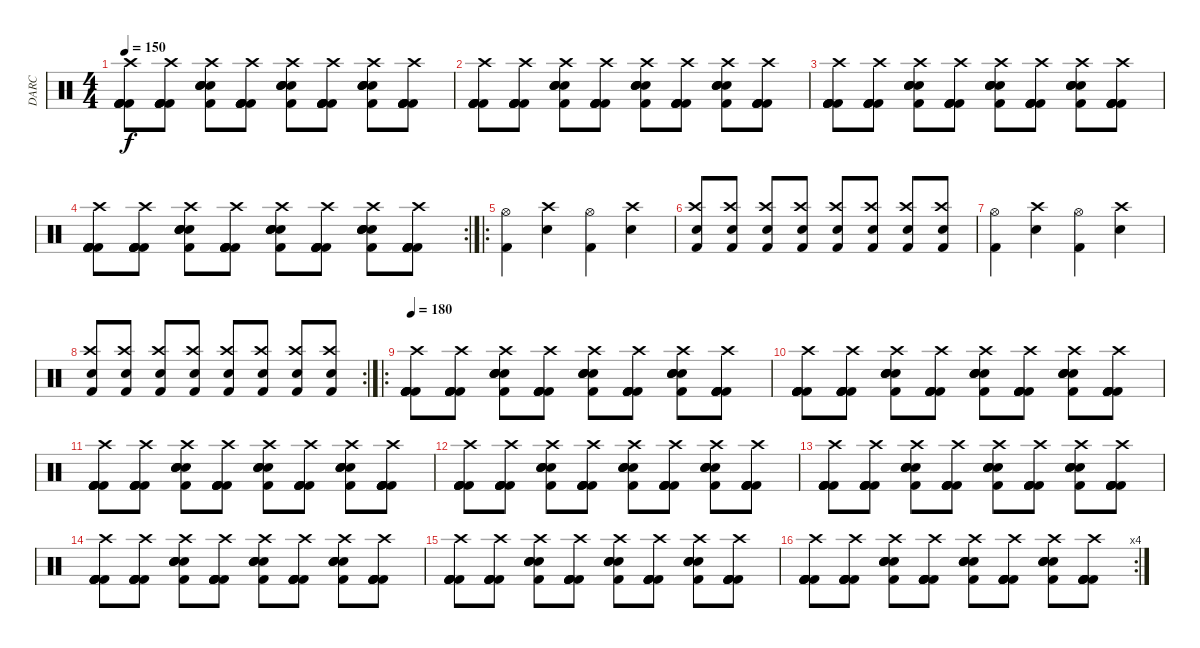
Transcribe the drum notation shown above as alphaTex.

\track ("DARC" "DARC") {instrument percussion}
\staff {score}
\articulation defaults
\ts (4 4)
\tempo 150
\clef neutral
\ks c
("Kick (hit) 2" "Kick (hit) 2" "Kick (hit) 2" "Kick (hit) 2" "Crash high (hit)" "Kick (hit) 2").8{dy f} ("Kick (hit) 2" "Kick (hit) 2" "Kick (hit) 2" "Kick (hit) 2" "Crash high (hit)" "Kick (hit) 2").8 ("Kick (hit) 2" "Electric Snare (hit)" "Electric Snare (hit)" "Electric Snare (hit)" "Crash high (hit)" "Electric Snare (hit)").8 ("Kick (hit) 2" "Kick (hit) 2" "Kick (hit) 2" "Kick (hit) 2" "Crash high (hit)" "Kick (hit) 2").8 ("Kick (hit) 2" "Electric Snare (hit)" "Electric Snare (hit)" "Electric Snare (hit)" "Crash high (hit)" "Electric Snare (hit)").8 ("Kick (hit) 2" "Kick (hit) 2" "Kick (hit) 2" "Kick (hit) 2" "Crash high (hit)" "Kick (hit) 2").8 ("Kick (hit) 2" "Electric Snare (hit)" "Electric Snare (hit)" "Electric Snare (hit)" "Crash high (hit)" "Electric Snare (hit)").8 ("Kick (hit) 2" "Kick (hit) 2" "Kick (hit) 2" "Kick (hit) 2" "Crash high (hit)" "Kick (hit) 2").8 |
("Kick (hit) 2" "Kick (hit) 2" "Kick (hit) 2" "Kick (hit) 2" "Crash high (hit)" "Kick (hit) 2").8 ("Kick (hit) 2" "Kick (hit) 2" "Kick (hit) 2" "Kick (hit) 2" "Crash high (hit)" "Kick (hit) 2").8 ("Kick (hit) 2" "Electric Snare (hit)" "Electric Snare (hit)" "Electric Snare (hit)" "Crash high (hit)" "Electric Snare (hit)").8 ("Kick (hit) 2" "Kick (hit) 2" "Kick (hit) 2" "Kick (hit) 2" "Crash high (hit)" "Kick (hit) 2").8 ("Kick (hit) 2" "Electric Snare (hit)" "Electric Snare (hit)" "Electric Snare (hit)" "Crash high (hit)" "Electric Snare (hit)").8 ("Kick (hit) 2" "Kick (hit) 2" "Kick (hit) 2" "Kick (hit) 2" "Crash high (hit)" "Kick (hit) 2").8 ("Kick (hit) 2" "Electric Snare (hit)" "Electric Snare (hit)" "Electric Snare (hit)" "Crash high (hit)" "Electric Snare (hit)").8 ("Kick (hit) 2" "Kick (hit) 2" "Kick (hit) 2" "Kick (hit) 2" "Crash high (hit)" "Kick (hit) 2").8 |
("Kick (hit) 2" "Kick (hit) 2" "Kick (hit) 2" "Kick (hit) 2" "Crash high (hit)" "Kick (hit) 2").8 ("Kick (hit) 2" "Kick (hit) 2" "Kick (hit) 2" "Kick (hit) 2" "Crash high (hit)" "Kick (hit) 2").8 ("Kick (hit) 2" "Electric Snare (hit)" "Electric Snare (hit)" "Electric Snare (hit)" "Crash high (hit)" "Electric Snare (hit)").8 ("Kick (hit) 2" "Kick (hit) 2" "Kick (hit) 2" "Kick (hit) 2" "Crash high (hit)" "Kick (hit) 2").8 ("Kick (hit) 2" "Electric Snare (hit)" "Electric Snare (hit)" "Electric Snare (hit)" "Crash high (hit)" "Electric Snare (hit)").8 ("Kick (hit) 2" "Kick (hit) 2" "Kick (hit) 2" "Kick (hit) 2" "Crash high (hit)" "Kick (hit) 2").8 ("Kick (hit) 2" "Electric Snare (hit)" "Electric Snare (hit)" "Electric Snare (hit)" "Crash high (hit)" "Electric Snare (hit)").8 ("Kick (hit) 2" "Kick (hit) 2" "Kick (hit) 2" "Kick (hit) 2" "Crash high (hit)" "Kick (hit) 2").8 |
\rc 2
("Kick (hit) 2" "Kick (hit) 2" "Kick (hit) 2" "Kick (hit) 2" "Crash high (hit)" "Kick (hit) 2").8 ("Kick (hit) 2" "Kick (hit) 2" "Kick (hit) 2" "Kick (hit) 2" "Crash high (hit)" "Kick (hit) 2").8 ("Kick (hit) 2" "Electric Snare (hit)" "Electric Snare (hit)" "Electric Snare (hit)" "Crash high (hit)" "Electric Snare (hit)").8 ("Kick (hit) 2" "Kick (hit) 2" "Kick (hit) 2" "Kick (hit) 2" "Crash high (hit)" "Kick (hit) 2").8 ("Kick (hit) 2" "Electric Snare (hit)" "Electric Snare (hit)" "Electric Snare (hit)" "Crash high (hit)" "Electric Snare (hit)").8 ("Kick (hit) 2" "Kick (hit) 2" "Kick (hit) 2" "Kick (hit) 2" "Crash high (hit)" "Kick (hit) 2").8 ("Kick (hit) 2" "Electric Snare (hit)" "Electric Snare (hit)" "Electric Snare (hit)" "Crash high (hit)" "Electric Snare (hit)").8 ("Kick (hit) 2" "Kick (hit) 2" "Kick (hit) 2" "Kick (hit) 2" "Crash high (hit)" "Kick (hit) 2").8 |
\ro
("Hi-Hat (open)" "Kick (hit) 2").4 ("Crash high (hit)" "Electric Snare (hit)").4 ("Hi-Hat (open)" "Kick (hit) 2").4 ("Crash high (hit)" "Electric Snare (hit)").4 |
("Crash high (hit)" "Kick (hit) 2" "Electric Snare (hit)").8 ("Crash high (hit)" "Kick (hit) 2" "Electric Snare (hit)").8 ("Crash high (hit)" "Kick (hit) 2" "Electric Snare (hit)").8 ("Crash high (hit)" "Kick (hit) 2" "Electric Snare (hit)").8 ("Crash high (hit)" "Kick (hit) 2" "Electric Snare (hit)").8 ("Crash high (hit)" "Kick (hit) 2" "Electric Snare (hit)").8 ("Crash high (hit)" "Kick (hit) 2" "Electric Snare (hit)").8 ("Crash high (hit)" "Kick (hit) 2" "Electric Snare (hit)").8 |
("Hi-Hat (open)" "Kick (hit) 2").4 ("Crash high (hit)" "Electric Snare (hit)").4 ("Hi-Hat (open)" "Kick (hit) 2").4 ("Crash high (hit)" "Electric Snare (hit)").4 |
\rc 2
("Crash high (hit)" "Kick (hit) 2" "Electric Snare (hit)").8 ("Crash high (hit)" "Kick (hit) 2" "Electric Snare (hit)").8 ("Crash high (hit)" "Kick (hit) 2" "Electric Snare (hit)").8 ("Crash high (hit)" "Kick (hit) 2" "Electric Snare (hit)").8 ("Crash high (hit)" "Kick (hit) 2" "Electric Snare (hit)").8 ("Crash high (hit)" "Kick (hit) 2" "Electric Snare (hit)").8 ("Crash high (hit)" "Kick (hit) 2" "Electric Snare (hit)").8 ("Crash high (hit)" "Kick (hit) 2" "Electric Snare (hit)").8 |
\ro
\tempo 180
("Kick (hit) 2" "Kick (hit) 2" "Kick (hit) 2" "Kick (hit) 2" "Crash high (hit)" "Kick (hit) 2").8{volume 16} ("Kick (hit) 2" "Kick (hit) 2" "Kick (hit) 2" "Kick (hit) 2" "Crash high (hit)" "Kick (hit) 2").8 ("Kick (hit) 2" "Electric Snare (hit)" "Electric Snare (hit)" "Electric Snare (hit)" "Crash high (hit)" "Electric Snare (hit)").8 ("Kick (hit) 2" "Kick (hit) 2" "Kick (hit) 2" "Kick (hit) 2" "Crash high (hit)" "Kick (hit) 2").8 ("Kick (hit) 2" "Electric Snare (hit)" "Electric Snare (hit)" "Electric Snare (hit)" "Crash high (hit)" "Electric Snare (hit)").8 ("Kick (hit) 2" "Kick (hit) 2" "Kick (hit) 2" "Kick (hit) 2" "Crash high (hit)" "Kick (hit) 2").8 ("Kick (hit) 2" "Electric Snare (hit)" "Electric Snare (hit)" "Electric Snare (hit)" "Crash high (hit)" "Electric Snare (hit)").8 ("Kick (hit) 2" "Kick (hit) 2" "Kick (hit) 2" "Kick (hit) 2" "Crash high (hit)" "Kick (hit) 2").8 |
("Kick (hit) 2" "Kick (hit) 2" "Kick (hit) 2" "Kick (hit) 2" "Crash high (hit)" "Kick (hit) 2").8 ("Kick (hit) 2" "Kick (hit) 2" "Kick (hit) 2" "Kick (hit) 2" "Crash high (hit)" "Kick (hit) 2").8 ("Kick (hit) 2" "Electric Snare (hit)" "Electric Snare (hit)" "Electric Snare (hit)" "Crash high (hit)" "Electric Snare (hit)").8 ("Kick (hit) 2" "Kick (hit) 2" "Kick (hit) 2" "Kick (hit) 2" "Crash high (hit)" "Kick (hit) 2").8 ("Kick (hit) 2" "Electric Snare (hit)" "Electric Snare (hit)" "Electric Snare (hit)" "Crash high (hit)" "Electric Snare (hit)").8 ("Kick (hit) 2" "Kick (hit) 2" "Kick (hit) 2" "Kick (hit) 2" "Crash high (hit)" "Kick (hit) 2").8 ("Kick (hit) 2" "Electric Snare (hit)" "Electric Snare (hit)" "Electric Snare (hit)" "Crash high (hit)" "Electric Snare (hit)").8 ("Kick (hit) 2" "Kick (hit) 2" "Kick (hit) 2" "Kick (hit) 2" "Crash high (hit)" "Kick (hit) 2").8 |
("Kick (hit) 2" "Kick (hit) 2" "Kick (hit) 2" "Kick (hit) 2" "Crash high (hit)" "Kick (hit) 2").8 ("Kick (hit) 2" "Kick (hit) 2" "Kick (hit) 2" "Kick (hit) 2" "Crash high (hit)" "Kick (hit) 2").8 ("Kick (hit) 2" "Electric Snare (hit)" "Electric Snare (hit)" "Electric Snare (hit)" "Crash high (hit)" "Electric Snare (hit)").8 ("Kick (hit) 2" "Kick (hit) 2" "Kick (hit) 2" "Kick (hit) 2" "Crash high (hit)" "Kick (hit) 2").8 ("Kick (hit) 2" "Electric Snare (hit)" "Electric Snare (hit)" "Electric Snare (hit)" "Crash high (hit)" "Electric Snare (hit)").8 ("Kick (hit) 2" "Kick (hit) 2" "Kick (hit) 2" "Kick (hit) 2" "Crash high (hit)" "Kick (hit) 2").8 ("Kick (hit) 2" "Electric Snare (hit)" "Electric Snare (hit)" "Electric Snare (hit)" "Crash high (hit)" "Electric Snare (hit)").8 ("Kick (hit) 2" "Kick (hit) 2" "Kick (hit) 2" "Kick (hit) 2" "Crash high (hit)" "Kick (hit) 2").8 |
("Kick (hit) 2" "Kick (hit) 2" "Kick (hit) 2" "Kick (hit) 2" "Crash high (hit)" "Kick (hit) 2").8 ("Kick (hit) 2" "Kick (hit) 2" "Kick (hit) 2" "Kick (hit) 2" "Crash high (hit)" "Kick (hit) 2").8 ("Kick (hit) 2" "Electric Snare (hit)" "Electric Snare (hit)" "Electric Snare (hit)" "Crash high (hit)" "Electric Snare (hit)").8 ("Kick (hit) 2" "Kick (hit) 2" "Kick (hit) 2" "Kick (hit) 2" "Crash high (hit)" "Kick (hit) 2").8 ("Kick (hit) 2" "Electric Snare (hit)" "Electric Snare (hit)" "Electric Snare (hit)" "Crash high (hit)" "Electric Snare (hit)").8 ("Kick (hit) 2" "Kick (hit) 2" "Kick (hit) 2" "Kick (hit) 2" "Crash high (hit)" "Kick (hit) 2").8 ("Kick (hit) 2" "Electric Snare (hit)" "Electric Snare (hit)" "Electric Snare (hit)" "Crash high (hit)" "Electric Snare (hit)").8 ("Kick (hit) 2" "Kick (hit) 2" "Kick (hit) 2" "Kick (hit) 2" "Crash high (hit)" "Kick (hit) 2").8 |
("Kick (hit) 2" "Kick (hit) 2" "Kick (hit) 2" "Kick (hit) 2" "Crash high (hit)" "Kick (hit) 2").8 ("Kick (hit) 2" "Kick (hit) 2" "Kick (hit) 2" "Kick (hit) 2" "Crash high (hit)" "Kick (hit) 2").8 ("Kick (hit) 2" "Electric Snare (hit)" "Electric Snare (hit)" "Electric Snare (hit)" "Crash high (hit)" "Electric Snare (hit)").8 ("Kick (hit) 2" "Kick (hit) 2" "Kick (hit) 2" "Kick (hit) 2" "Crash high (hit)" "Kick (hit) 2").8 ("Kick (hit) 2" "Electric Snare (hit)" "Electric Snare (hit)" "Electric Snare (hit)" "Crash high (hit)" "Electric Snare (hit)").8 ("Kick (hit) 2" "Kick (hit) 2" "Kick (hit) 2" "Kick (hit) 2" "Crash high (hit)" "Kick (hit) 2").8 ("Kick (hit) 2" "Electric Snare (hit)" "Electric Snare (hit)" "Electric Snare (hit)" "Crash high (hit)" "Electric Snare (hit)").8 ("Kick (hit) 2" "Kick (hit) 2" "Kick (hit) 2" "Kick (hit) 2" "Crash high (hit)" "Kick (hit) 2").8 |
("Kick (hit) 2" "Kick (hit) 2" "Kick (hit) 2" "Kick (hit) 2" "Crash high (hit)" "Kick (hit) 2").8 ("Kick (hit) 2" "Kick (hit) 2" "Kick (hit) 2" "Kick (hit) 2" "Crash high (hit)" "Kick (hit) 2").8 ("Kick (hit) 2" "Electric Snare (hit)" "Electric Snare (hit)" "Electric Snare (hit)" "Crash high (hit)" "Electric Snare (hit)").8 ("Kick (hit) 2" "Kick (hit) 2" "Kick (hit) 2" "Kick (hit) 2" "Crash high (hit)" "Kick (hit) 2").8 ("Kick (hit) 2" "Electric Snare (hit)" "Electric Snare (hit)" "Electric Snare (hit)" "Crash high (hit)" "Electric Snare (hit)").8 ("Kick (hit) 2" "Kick (hit) 2" "Kick (hit) 2" "Kick (hit) 2" "Crash high (hit)" "Kick (hit) 2").8 ("Kick (hit) 2" "Electric Snare (hit)" "Electric Snare (hit)" "Electric Snare (hit)" "Crash high (hit)" "Electric Snare (hit)").8 ("Kick (hit) 2" "Kick (hit) 2" "Kick (hit) 2" "Kick (hit) 2" "Crash high (hit)" "Kick (hit) 2").8 |
("Kick (hit) 2" "Kick (hit) 2" "Kick (hit) 2" "Kick (hit) 2" "Crash high (hit)" "Kick (hit) 2").8 ("Kick (hit) 2" "Kick (hit) 2" "Kick (hit) 2" "Kick (hit) 2" "Crash high (hit)" "Kick (hit) 2").8 ("Kick (hit) 2" "Electric Snare (hit)" "Electric Snare (hit)" "Electric Snare (hit)" "Crash high (hit)" "Electric Snare (hit)").8 ("Kick (hit) 2" "Kick (hit) 2" "Kick (hit) 2" "Kick (hit) 2" "Crash high (hit)" "Kick (hit) 2").8 ("Kick (hit) 2" "Electric Snare (hit)" "Electric Snare (hit)" "Electric Snare (hit)" "Crash high (hit)" "Electric Snare (hit)").8 ("Kick (hit) 2" "Kick (hit) 2" "Kick (hit) 2" "Kick (hit) 2" "Crash high (hit)" "Kick (hit) 2").8 ("Kick (hit) 2" "Electric Snare (hit)" "Electric Snare (hit)" "Electric Snare (hit)" "Crash high (hit)" "Electric Snare (hit)").8 ("Kick (hit) 2" "Kick (hit) 2" "Kick (hit) 2" "Kick (hit) 2" "Crash high (hit)" "Kick (hit) 2").8 |
\rc 4
("Kick (hit) 2" "Kick (hit) 2" "Kick (hit) 2" "Kick (hit) 2" "Crash high (hit)" "Kick (hit) 2").8 ("Kick (hit) 2" "Kick (hit) 2" "Kick (hit) 2" "Kick (hit) 2" "Crash high (hit)" "Kick (hit) 2").8 ("Kick (hit) 2" "Electric Snare (hit)" "Electric Snare (hit)" "Electric Snare (hit)" "Crash high (hit)" "Electric Snare (hit)").8 ("Kick (hit) 2" "Kick (hit) 2" "Kick (hit) 2" "Kick (hit) 2" "Crash high (hit)" "Kick (hit) 2").8 ("Kick (hit) 2" "Electric Snare (hit)" "Electric Snare (hit)" "Electric Snare (hit)" "Crash high (hit)" "Electric Snare (hit)").8 ("Kick (hit) 2" "Kick (hit) 2" "Kick (hit) 2" "Kick (hit) 2" "Crash high (hit)" "Kick (hit) 2").8 ("Kick (hit) 2" "Electric Snare (hit)" "Electric Snare (hit)" "Electric Snare (hit)" "Crash high (hit)" "Electric Snare (hit)").8 ("Kick (hit) 2" "Kick (hit) 2" "Kick (hit) 2" "Kick (hit) 2" "Crash high (hit)" "Kick (hit) 2").8
